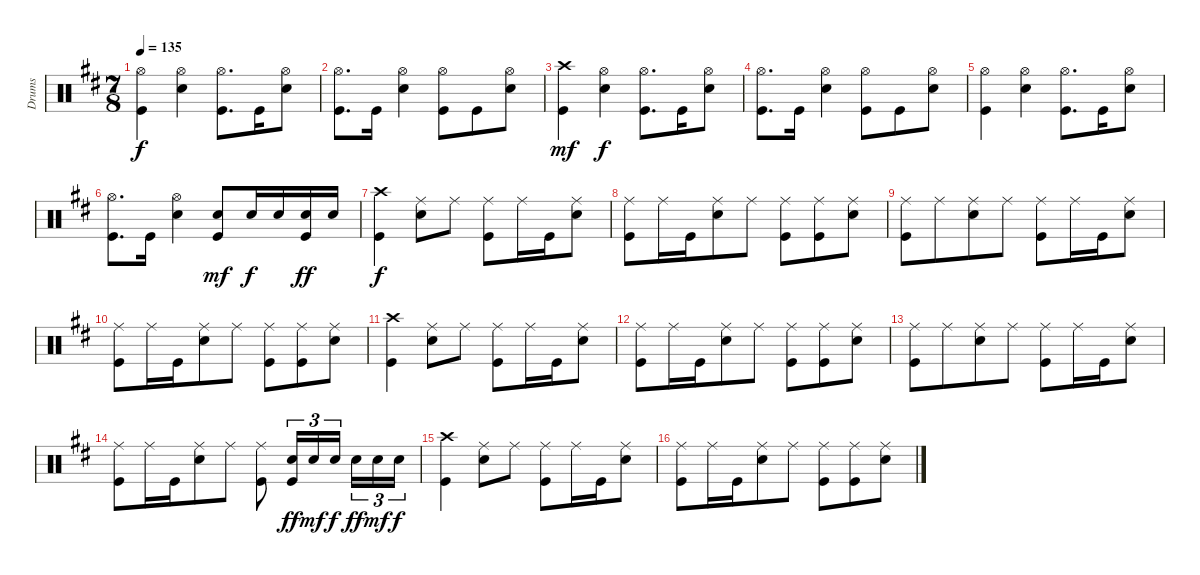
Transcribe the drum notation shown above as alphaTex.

\track ("Drums" "Drums") {instrument percussion}
\staff {score}
\articulation defaults
\ts (7 8)
\tempo 135
\clef neutral
\ks d
("Hi-Hat (open)" "Kick (hit)").4{dy f} ("Hi-Hat (open)" "Snare (hit) 2").4 ("Hi-Hat (open)" "Kick (hit)").8{d} "Kick (hit)".16 ("Hi-Hat (open)" "Snare (hit) 2").8 |
("Hi-Hat (open)" "Kick (hit)").8{d} "Kick (hit)".16 ("Hi-Hat (open)" "Snare (hit) 2").4 ("Hi-Hat (open)" "Kick (hit)").8 "Kick (hit)".8 ("Hi-Hat (open)" "Snare (hit) 2").8 |
("Crash high (hit)" "Kick (hit)").4{dy mf} ("Hi-Hat (open)" "Snare (hit) 2").4{dy f} ("Hi-Hat (open)" "Kick (hit)").8{d} "Kick (hit)".16 ("Hi-Hat (open)" "Snare (hit) 2").8 |
("Hi-Hat (open)" "Kick (hit)").8{d} "Kick (hit)".16 ("Hi-Hat (open)" "Snare (hit) 2").4 ("Hi-Hat (open)" "Kick (hit)").8 "Kick (hit)".8 ("Hi-Hat (open)" "Snare (hit) 2").8 |
("Hi-Hat (open)" "Kick (hit)").4 ("Hi-Hat (open)" "Snare (hit) 2").4 ("Hi-Hat (open)" "Kick (hit)").8{d} "Kick (hit)".16 ("Hi-Hat (open)" "Snare (hit) 2").8 |
("Hi-Hat (open)" "Kick (hit)").8{d} "Kick (hit)".16 ("Hi-Hat (open)" "Snare (hit) 2").4 ("Snare (hit) 2" "Kick (hit)").8{dy mf} "Snare (hit) 2".16{dy f} "Snare (hit) 2".16 ("Snare (hit) 2" "Kick (hit)").16{dy ff} "Snare (hit) 2".16 |
("Crash high (hit)" "Kick (hit)").4{dy f} ("Ride (middle)" "Snare (hit) 2").8 "Ride (middle)".8 ("Ride (middle)" "Kick (hit)").8 "Ride (middle)".16 "Kick (hit)".16 ("Ride (middle)" "Snare (hit) 2").8 |
("Ride (middle)" "Kick (hit)").8 "Ride (middle)".16 "Kick (hit)".16 ("Ride (middle)" "Snare (hit) 2").8 "Ride (middle)".8 ("Ride (middle)" "Kick (hit)").8 ("Ride (middle)" "Kick (hit)").8 ("Ride (middle)" "Snare (hit) 2").8 |
("Ride (middle)" "Kick (hit)").8 "Ride (middle)".8 ("Ride (middle)" "Snare (hit) 2").8 "Ride (middle)".8 ("Ride (middle)" "Kick (hit)").8 "Ride (middle)".16 "Kick (hit)".16 ("Ride (middle)" "Snare (hit) 2").8 |
("Ride (middle)" "Kick (hit)").8 "Ride (middle)".16 "Kick (hit)".16 ("Ride (middle)" "Snare (hit) 2").8 "Ride (middle)".8 ("Ride (middle)" "Kick (hit)").8 ("Ride (middle)" "Kick (hit)").8 ("Ride (middle)" "Snare (hit) 2").8 |
("Crash high (hit)" "Kick (hit)").4 ("Ride (middle)" "Snare (hit) 2").8 "Ride (middle)".8 ("Ride (middle)" "Kick (hit)").8 "Ride (middle)".16 "Kick (hit)".16 ("Ride (middle)" "Snare (hit) 2").8 |
("Ride (middle)" "Kick (hit)").8 "Ride (middle)".16 "Kick (hit)".16 ("Ride (middle)" "Snare (hit) 2").8 "Ride (middle)".8 ("Ride (middle)" "Kick (hit)").8 ("Ride (middle)" "Kick (hit)").8 ("Ride (middle)" "Snare (hit) 2").8 |
("Ride (middle)" "Kick (hit)").8 "Ride (middle)".8 ("Ride (middle)" "Snare (hit) 2").8 "Ride (middle)".8 ("Ride (middle)" "Kick (hit)").8 "Ride (middle)".16 "Kick (hit)".16 ("Ride (middle)" "Snare (hit) 2").8 |
("Ride (middle)" "Kick (hit)").8 "Ride (middle)".16 "Kick (hit)".16 ("Ride (middle)" "Snare (hit) 2").8 "Ride (middle)".8 ("Ride (middle)" "Kick (hit)").8 ("Snare (hit) 2" "Kick (hit)").16{tu (3 2) dy ff} "Snare (hit) 2".16{tu (3 2) dy mf} "Snare (hit) 2".16{tu (3 2) dy f} "Snare (hit) 2".16{tu (3 2) dy ff} "Snare (hit) 2".16{tu (3 2) dy mf} "Snare (hit) 2".16{tu (3 2) dy f} |
("Crash high (hit)" "Kick (hit)").4 ("Ride (middle)" "Snare (hit) 2").8 "Ride (middle)".8 ("Ride (middle)" "Kick (hit)").8 "Ride (middle)".16 "Kick (hit)".16 ("Ride (middle)" "Snare (hit) 2").8 |
("Ride (middle)" "Kick (hit)").8 "Ride (middle)".16 "Kick (hit)".16 ("Ride (middle)" "Snare (hit) 2").8 "Ride (middle)".8 ("Ride (middle)" "Kick (hit)").8 ("Ride (middle)" "Kick (hit)").8 ("Ride (middle)" "Snare (hit) 2").8
